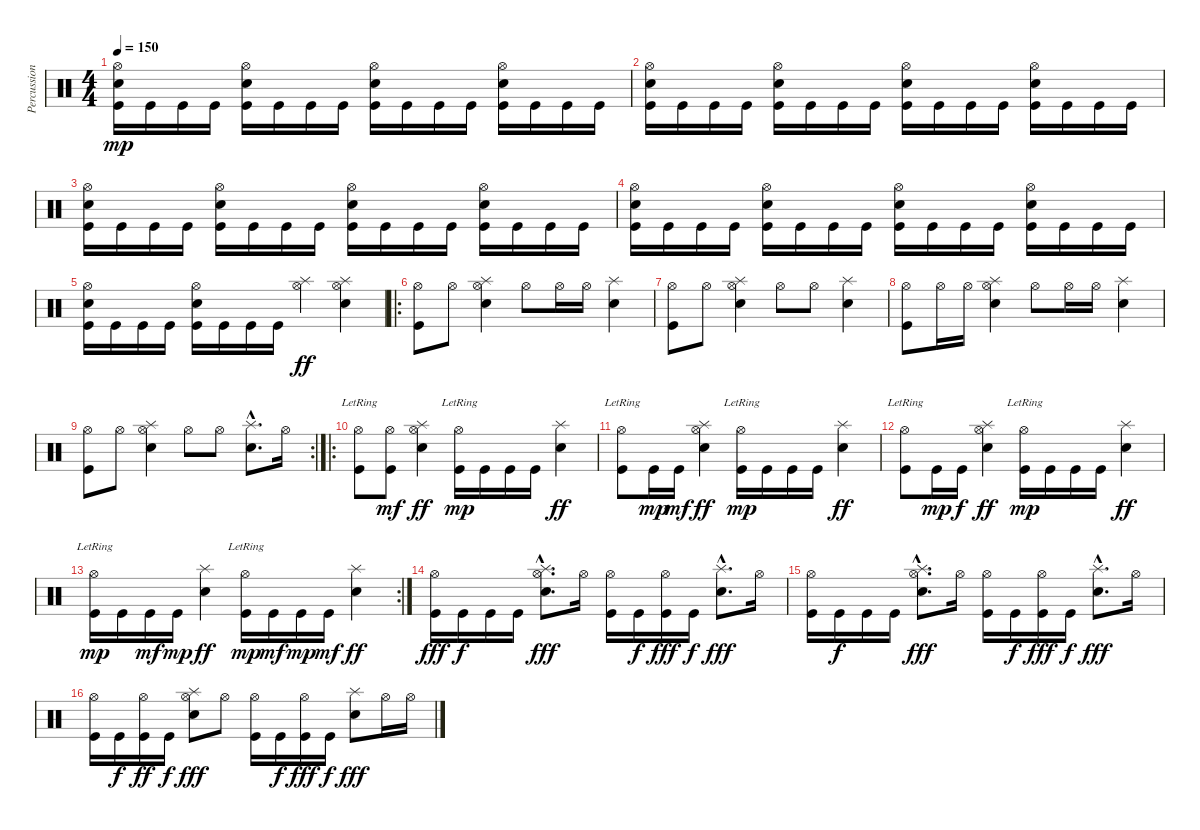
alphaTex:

\track ("Percussion" "Percussion") {instrument percussion}
\staff {score}
\articulation defaults
\ts (4 4)
\tempo 150
\clef neutral
\ks c
("Hi-Hat (open)" "Snare (hit) 2" "Kick (hit)").16{dy mp} "Kick (hit)".16 "Kick (hit)".16 "Kick (hit)".16 ("Hi-Hat (open)" "Snare (hit) 2" "Kick (hit)").16 "Kick (hit)".16 "Kick (hit)".16 "Kick (hit)".16 ("Hi-Hat (open)" "Snare (hit) 2" "Kick (hit)").16 "Kick (hit)".16 "Kick (hit)".16 "Kick (hit)".16 ("Hi-Hat (open)" "Snare (hit) 2" "Kick (hit)").16 "Kick (hit)".16 "Kick (hit)".16 "Kick (hit)".16 |
("Hi-Hat (open)" "Snare (hit) 2" "Kick (hit)").16 "Kick (hit)".16 "Kick (hit)".16 "Kick (hit)".16 ("Hi-Hat (open)" "Snare (hit) 2" "Kick (hit)").16 "Kick (hit)".16 "Kick (hit)".16 "Kick (hit)".16 ("Hi-Hat (open)" "Snare (hit) 2" "Kick (hit)").16 "Kick (hit)".16 "Kick (hit)".16 "Kick (hit)".16 ("Hi-Hat (open)" "Snare (hit) 2" "Kick (hit)").16 "Kick (hit)".16 "Kick (hit)".16 "Kick (hit)".16 |
("Hi-Hat (open)" "Snare (hit) 2" "Kick (hit)").16 "Kick (hit)".16 "Kick (hit)".16 "Kick (hit)".16 ("Hi-Hat (open)" "Snare (hit) 2" "Kick (hit)").16 "Kick (hit)".16 "Kick (hit)".16 "Kick (hit)".16 ("Hi-Hat (open)" "Snare (hit) 2" "Kick (hit)").16 "Kick (hit)".16 "Kick (hit)".16 "Kick (hit)".16 ("Hi-Hat (open)" "Snare (hit) 2" "Kick (hit)").16 "Kick (hit)".16 "Kick (hit)".16 "Kick (hit)".16 |
("Hi-Hat (open)" "Snare (hit) 2" "Kick (hit)").16 "Kick (hit)".16 "Kick (hit)".16 "Kick (hit)".16 ("Hi-Hat (open)" "Snare (hit) 2" "Kick (hit)").16 "Kick (hit)".16 "Kick (hit)".16 "Kick (hit)".16 ("Hi-Hat (open)" "Snare (hit) 2" "Kick (hit)").16 "Kick (hit)".16 "Kick (hit)".16 "Kick (hit)".16 ("Hi-Hat (open)" "Snare (hit) 2" "Kick (hit)").16 "Kick (hit)".16 "Kick (hit)".16 "Kick (hit)".16 |
("Hi-Hat (open)" "Snare (hit) 2" "Kick (hit)").16 "Kick (hit)".16 "Kick (hit)".16 "Kick (hit)".16 ("Hi-Hat (open)" "Snare (hit) 2" "Kick (hit)").16 "Kick (hit)".16 "Kick (hit)".16 "Kick (hit)".16 ("Hi-Hat (open)" "Splash (hit)").4{dy ff} ("Snare (hit) 2" "Splash (hit)" "Hi-Hat (open)").4 |
\ro
("Kick (hit)" "Hi-Hat (open)").8 "Hi-Hat (open)".8 ("Snare (hit) 2" "Hi-Hat (open)" "Splash (hit)").4 "Hi-Hat (open)".8 "Hi-Hat (open)".16 "Hi-Hat (open)".16 ("Snare (hit) 2" "Splash (hit)").4 |
("Kick (hit)" "Hi-Hat (open)").8 "Hi-Hat (open)".8 ("Snare (hit) 2" "Hi-Hat (open)" "Splash (hit)").4 "Hi-Hat (open)".8 "Hi-Hat (open)".8 ("Snare (hit) 2" "Splash (hit)").4 |
("Kick (hit)" "Hi-Hat (open)").8 "Hi-Hat (open)".16 "Hi-Hat (open)".16 ("Snare (hit) 2" "Hi-Hat (open)" "Splash (hit)").4 "Hi-Hat (open)".8 "Hi-Hat (open)".16 "Hi-Hat (open)".16 ("Snare (hit) 2" "Splash (hit)").4 |
\rc 2
("Kick (hit)" "Hi-Hat (open)").8 "Hi-Hat (open)".8 ("Snare (hit) 2" "Hi-Hat (open)" "Splash (hit)").4 "Hi-Hat (open)".8 "Hi-Hat (open)".8 ("Snare (hit) 2"{hac} "Splash (hit)"{hac}).8{d} "Hi-Hat (open)".16 |
\ro
("Kick (hit)" "Hi-Hat (open)"{lr}).8 ("Hi-Hat (open)" "Kick (hit)").8{dy mf} ("Snare (hit) 2" "Hi-Hat (open)" "Splash (hit)").4{dy ff} ("Hi-Hat (open)"{lr} "Kick (hit)").16{dy mp} "Kick (hit)".16 "Kick (hit)".16 "Kick (hit)".16 ("Snare (hit) 2" "Splash (hit)").4{dy ff} |
("Kick (hit)" "Hi-Hat (open)"{lr}).8 "Kick (hit)".16{dy mp} "Kick (hit)".16{dy mf} ("Snare (hit) 2" "Hi-Hat (open)" "Splash (hit)").4{dy ff} ("Hi-Hat (open)"{lr} "Kick (hit)").16{dy mp} "Kick (hit)".16 "Kick (hit)".16 "Kick (hit)".16 ("Snare (hit) 2" "Splash (hit)").4{dy ff} |
("Kick (hit)" "Hi-Hat (open)"{lr}).8 "Kick (hit)".16{dy mp} "Kick (hit)".16{dy f} ("Snare (hit) 2" "Hi-Hat (open)" "Splash (hit)").4{dy ff} ("Hi-Hat (open)"{lr} "Kick (hit)").16{dy mp} "Kick (hit)".16 "Kick (hit)".16 "Kick (hit)".16 ("Snare (hit) 2" "Splash (hit)").4{dy ff} |
\rc 2
("Hi-Hat (open)"{lr} "Kick (hit)").16{dy mp} "Kick (hit)".16 "Kick (hit)".16{dy mf} "Kick (hit)".16{dy mp} ("Snare (hit) 2" "Splash (hit)").4{dy ff} ("Hi-Hat (open)"{lr} "Kick (hit)").16{dy mp} "Kick (hit)".16{dy mf} "Kick (hit)".16{dy mp} "Kick (hit)".16{dy mf} ("Snare (hit) 2" "Splash (hit)").4{dy ff} |
("Kick (hit)" "Hi-Hat (open)").16{dy fff} "Kick (hit)".16{dy f} "Kick (hit)".16 "Kick (hit)".16 ("Snare (hit) 2"{hac} "Splash (hit)"{hac} "Hi-Hat (open)"{hac}).8{d dy fff} "Hi-Hat (open)".16 ("Kick (hit)" "Hi-Hat (open)").16 "Kick (hit)".16{dy f} ("Kick (hit)" "Hi-Hat (open)").16{dy fff} "Kick (hit)".16{dy f} ("Snare (hit) 2"{hac} "Splash (hit)"{hac}).8{d dy fff} "Hi-Hat (open)".16 |
("Kick (hit)" "Hi-Hat (open)").16 "Kick (hit)".16{dy f} "Kick (hit)".16 "Kick (hit)".16 ("Snare (hit) 2"{hac} "Splash (hit)"{hac} "Hi-Hat (open)"{hac}).8{d dy fff} "Hi-Hat (open)".16 ("Kick (hit)" "Hi-Hat (open)").16 "Kick (hit)".16{dy f} ("Kick (hit)" "Hi-Hat (open)").16{dy fff} "Kick (hit)".16{dy f} ("Snare (hit) 2"{hac} "Splash (hit)"{hac}).8{d dy fff} "Hi-Hat (open)".16 |
("Kick (hit)" "Hi-Hat (open)").16 "Kick (hit)".16{dy f} ("Kick (hit)" "Hi-Hat (open)").16{dy ff} "Kick (hit)".16{dy f} ("Snare (hit) 2" "Splash (hit)" "Hi-Hat (open)").8{dy fff} "Hi-Hat (open)".8 ("Kick (hit)" "Hi-Hat (open)").16 "Kick (hit)".16{dy f} ("Kick (hit)" "Hi-Hat (open)").16{dy fff} "Kick (hit)".16{dy f} ("Snare (hit) 2" "Splash (hit)").8{dy fff} "Hi-Hat (open)".16 "Hi-Hat (open)".16
